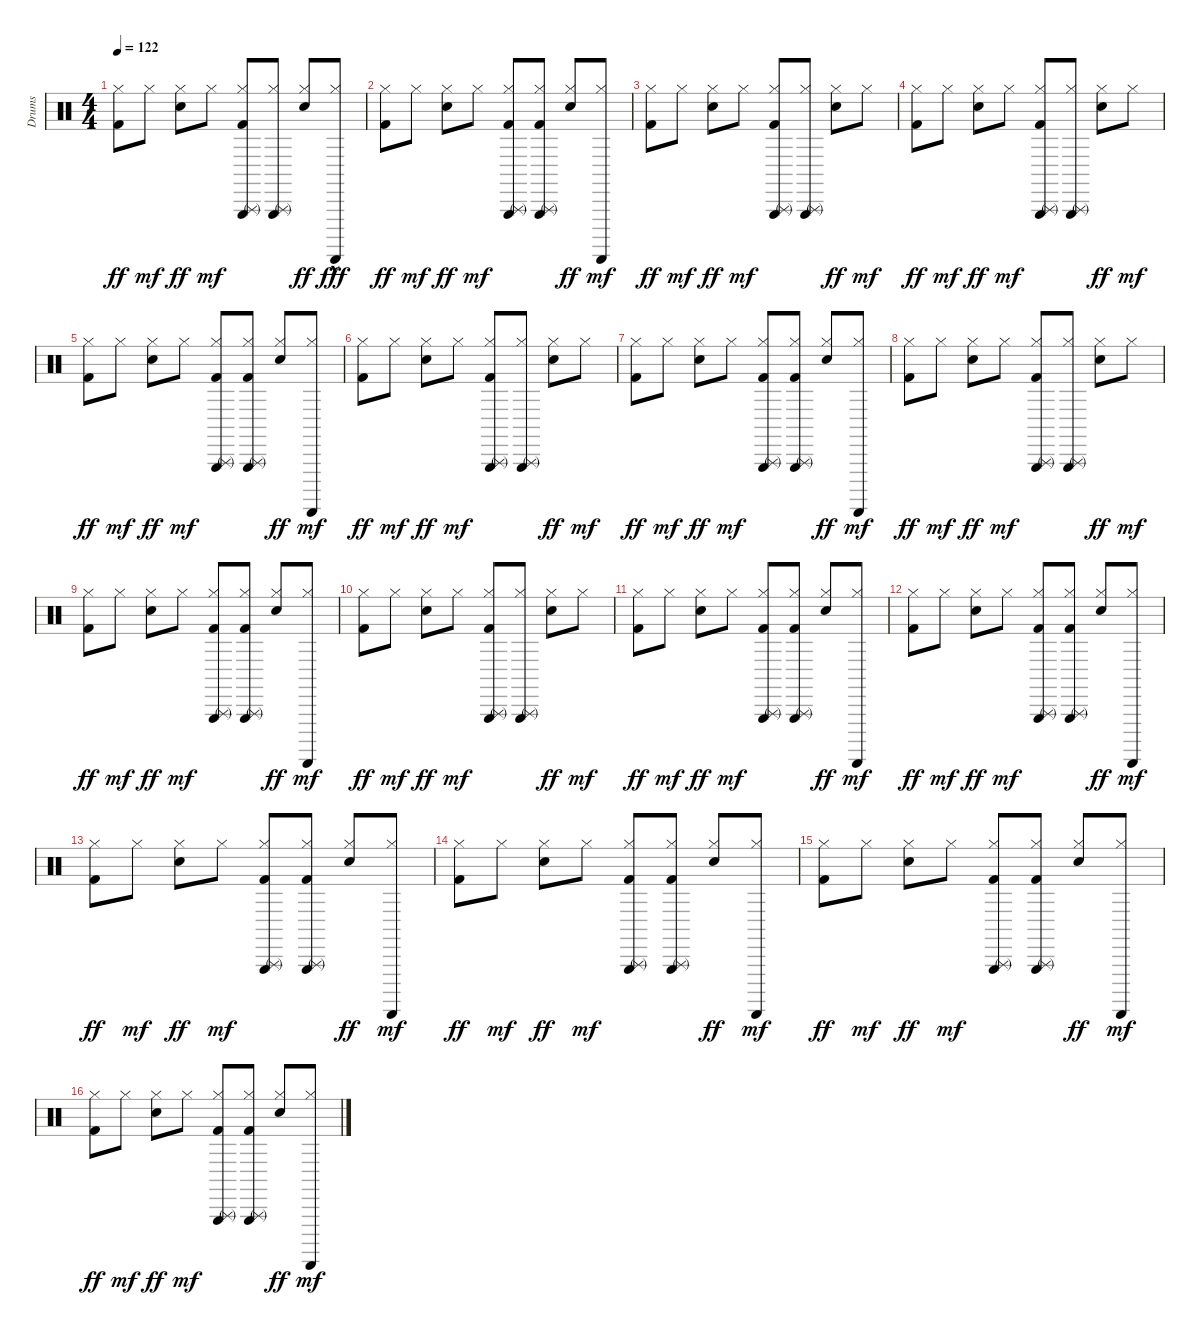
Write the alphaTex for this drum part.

\track ("Drums" "Drums") {instrument percussion}
\staff {score}
\articulation defaults
\ts (4 4)
\tempo 122
\clef neutral
\ks c
("Kick (hit) 2" "Hi-Hat (closed)").8{dy ff} "Hi-Hat (closed)".8{dy mf} ("Snare (hit) 2" "Hi-Hat (closed)").8{dy ff} "Hi-Hat (closed)".8{dy mf} ("Kick (hit) 2" "Hi-Hat (closed)" "Triangle (rnute)" "Triangle (hit)").8 ("Hi-Hat (closed)" "Triangle (rnute)" "Triangle (hit)").8 ("Snare (hit) 2" "Hi-Hat (closed)").8{dy ff} ("Hi-Hat (closed)" "Guiro (scrap-return)"{hac}).8{dy fff} |
("Kick (hit) 2" "Hi-Hat (closed)").8{dy ff} "Hi-Hat (closed)".8{dy mf} ("Snare (hit) 2" "Hi-Hat (closed)").8{dy ff} "Hi-Hat (closed)".8{dy mf} ("Kick (hit) 2" "Hi-Hat (closed)" "Triangle (rnute)" "Triangle (hit)").8 ("Kick (hit) 2" "Hi-Hat (closed)" "Triangle (rnute)" "Triangle (hit)").8 ("Snare (hit) 2" "Hi-Hat (closed)").8{dy ff} ("Hi-Hat (closed)" "Guiro (scrap-return)").8{dy mf} |
("Kick (hit) 2" "Hi-Hat (closed)").8{dy ff} "Hi-Hat (closed)".8{dy mf} ("Snare (hit) 2" "Hi-Hat (closed)").8{dy ff} "Hi-Hat (closed)".8{dy mf} ("Kick (hit) 2" "Hi-Hat (closed)" "Triangle (rnute)" "Triangle (hit)").8 ("Hi-Hat (closed)" "Triangle (rnute)" "Triangle (hit)").8 ("Snare (hit) 2" "Hi-Hat (closed)").8{dy ff} "Hi-Hat (closed)".8{dy mf} |
("Kick (hit) 2" "Hi-Hat (closed)").8{dy ff} "Hi-Hat (closed)".8{dy mf} ("Snare (hit) 2" "Hi-Hat (closed)").8{dy ff} "Hi-Hat (closed)".8{dy mf} ("Kick (hit) 2" "Hi-Hat (closed)" "Triangle (rnute)" "Triangle (hit)").8 ("Hi-Hat (closed)" "Triangle (rnute)" "Triangle (hit)").8 ("Snare (hit) 2" "Hi-Hat (closed)").8{dy ff} "Hi-Hat (closed)".8{dy mf} |
("Kick (hit) 2" "Hi-Hat (closed)").8{dy ff} "Hi-Hat (closed)".8{dy mf} ("Snare (hit) 2" "Hi-Hat (closed)").8{dy ff} "Hi-Hat (closed)".8{dy mf} ("Kick (hit) 2" "Hi-Hat (closed)" "Triangle (rnute)" "Triangle (hit)").8 ("Kick (hit) 2" "Hi-Hat (closed)" "Triangle (rnute)" "Triangle (hit)").8 ("Snare (hit) 2" "Hi-Hat (closed)").8{dy ff} ("Hi-Hat (closed)" "Guiro (scrap-return)").8{dy mf} |
("Kick (hit) 2" "Hi-Hat (closed)").8{dy ff} "Hi-Hat (closed)".8{dy mf} ("Snare (hit) 2" "Hi-Hat (closed)").8{dy ff} "Hi-Hat (closed)".8{dy mf} ("Kick (hit) 2" "Hi-Hat (closed)" "Triangle (rnute)" "Triangle (hit)").8 ("Hi-Hat (closed)" "Triangle (rnute)" "Triangle (hit)").8 ("Snare (hit) 2" "Hi-Hat (closed)").8{dy ff} "Hi-Hat (closed)".8{dy mf} |
("Kick (hit) 2" "Hi-Hat (closed)").8{dy ff} "Hi-Hat (closed)".8{dy mf} ("Snare (hit) 2" "Hi-Hat (closed)").8{dy ff} "Hi-Hat (closed)".8{dy mf} ("Kick (hit) 2" "Hi-Hat (closed)" "Triangle (rnute)" "Triangle (hit)").8 ("Kick (hit) 2" "Hi-Hat (closed)" "Triangle (rnute)" "Triangle (hit)").8 ("Snare (hit) 2" "Hi-Hat (closed)").8{dy ff} ("Hi-Hat (closed)" "Guiro (scrap-return)").8{dy mf} |
("Kick (hit) 2" "Hi-Hat (closed)").8{dy ff} "Hi-Hat (closed)".8{dy mf} ("Snare (hit) 2" "Hi-Hat (closed)").8{dy ff} "Hi-Hat (closed)".8{dy mf} ("Kick (hit) 2" "Hi-Hat (closed)" "Triangle (rnute)" "Triangle (hit)").8 ("Hi-Hat (closed)" "Triangle (rnute)" "Triangle (hit)").8 ("Snare (hit) 2" "Hi-Hat (closed)").8{dy ff} "Hi-Hat (closed)".8{dy mf} |
("Kick (hit) 2" "Hi-Hat (closed)").8{dy ff} "Hi-Hat (closed)".8{dy mf} ("Snare (hit) 2" "Hi-Hat (closed)").8{dy ff} "Hi-Hat (closed)".8{dy mf} ("Kick (hit) 2" "Hi-Hat (closed)" "Triangle (rnute)" "Triangle (hit)").8 ("Kick (hit) 2" "Hi-Hat (closed)" "Triangle (rnute)" "Triangle (hit)").8 ("Snare (hit) 2" "Hi-Hat (closed)").8{dy ff} ("Hi-Hat (closed)" "Guiro (scrap-return)").8{dy mf} |
("Kick (hit) 2" "Hi-Hat (closed)").8{dy ff} "Hi-Hat (closed)".8{dy mf} ("Snare (hit) 2" "Hi-Hat (closed)").8{dy ff} "Hi-Hat (closed)".8{dy mf} ("Kick (hit) 2" "Hi-Hat (closed)" "Triangle (rnute)" "Triangle (hit)").8 ("Hi-Hat (closed)" "Triangle (rnute)" "Triangle (hit)").8 ("Snare (hit) 2" "Hi-Hat (closed)").8{dy ff} "Hi-Hat (closed)".8{dy mf} |
("Kick (hit) 2" "Hi-Hat (closed)").8{dy ff} "Hi-Hat (closed)".8{dy mf} ("Snare (hit) 2" "Hi-Hat (closed)").8{dy ff} "Hi-Hat (closed)".8{dy mf} ("Kick (hit) 2" "Hi-Hat (closed)" "Triangle (rnute)" "Triangle (hit)").8 ("Kick (hit) 2" "Hi-Hat (closed)" "Triangle (rnute)" "Triangle (hit)").8 ("Snare (hit) 2" "Hi-Hat (closed)").8{dy ff} ("Hi-Hat (closed)" "Guiro (scrap-return)").8{dy mf} |
("Kick (hit) 2" "Hi-Hat (closed)").8{dy ff} "Hi-Hat (closed)".8{dy mf} ("Snare (hit) 2" "Hi-Hat (closed)").8{dy ff} "Hi-Hat (closed)".8{dy mf} ("Kick (hit) 2" "Hi-Hat (closed)" "Triangle (rnute)" "Triangle (hit)").8 ("Kick (hit) 2" "Hi-Hat (closed)" "Triangle (rnute)" "Triangle (hit)").8 ("Snare (hit) 2" "Hi-Hat (closed)").8{dy ff} ("Hi-Hat (closed)" "Guiro (scrap-return)").8{dy mf} |
("Kick (hit) 2" "Hi-Hat (closed)").8{dy ff} "Hi-Hat (closed)".8{dy mf} ("Snare (hit) 2" "Hi-Hat (closed)").8{dy ff} "Hi-Hat (closed)".8{dy mf} ("Kick (hit) 2" "Hi-Hat (closed)" "Triangle (rnute)" "Triangle (hit)").8 ("Kick (hit) 2" "Hi-Hat (closed)" "Triangle (rnute)" "Triangle (hit)").8 ("Snare (hit) 2" "Hi-Hat (closed)").8{dy ff} ("Hi-Hat (closed)" "Guiro (scrap-return)").8{dy mf} |
("Kick (hit) 2" "Hi-Hat (closed)").8{dy ff} "Hi-Hat (closed)".8{dy mf} ("Snare (hit) 2" "Hi-Hat (closed)").8{dy ff} "Hi-Hat (closed)".8{dy mf} ("Kick (hit) 2" "Hi-Hat (closed)" "Triangle (rnute)" "Triangle (hit)").8 ("Kick (hit) 2" "Hi-Hat (closed)" "Triangle (rnute)" "Triangle (hit)").8 ("Snare (hit) 2" "Hi-Hat (closed)").8{dy ff} ("Hi-Hat (closed)" "Guiro (scrap-return)").8{dy mf} |
("Kick (hit) 2" "Hi-Hat (closed)").8{dy ff} "Hi-Hat (closed)".8{dy mf} ("Snare (hit) 2" "Hi-Hat (closed)").8{dy ff} "Hi-Hat (closed)".8{dy mf} ("Kick (hit) 2" "Hi-Hat (closed)" "Triangle (rnute)" "Triangle (hit)").8 ("Kick (hit) 2" "Hi-Hat (closed)" "Triangle (rnute)" "Triangle (hit)").8 ("Snare (hit) 2" "Hi-Hat (closed)").8{dy ff} ("Hi-Hat (closed)" "Guiro (scrap-return)").8{dy mf} |
("Kick (hit) 2" "Hi-Hat (closed)").8{dy ff} "Hi-Hat (closed)".8{dy mf} ("Snare (hit) 2" "Hi-Hat (closed)").8{dy ff} "Hi-Hat (closed)".8{dy mf} ("Kick (hit) 2" "Hi-Hat (closed)" "Triangle (rnute)" "Triangle (hit)").8 ("Kick (hit) 2" "Hi-Hat (closed)" "Triangle (rnute)" "Triangle (hit)").8 ("Snare (hit) 2" "Hi-Hat (closed)").8{dy ff} ("Hi-Hat (closed)" "Guiro (scrap-return)").8{dy mf}
